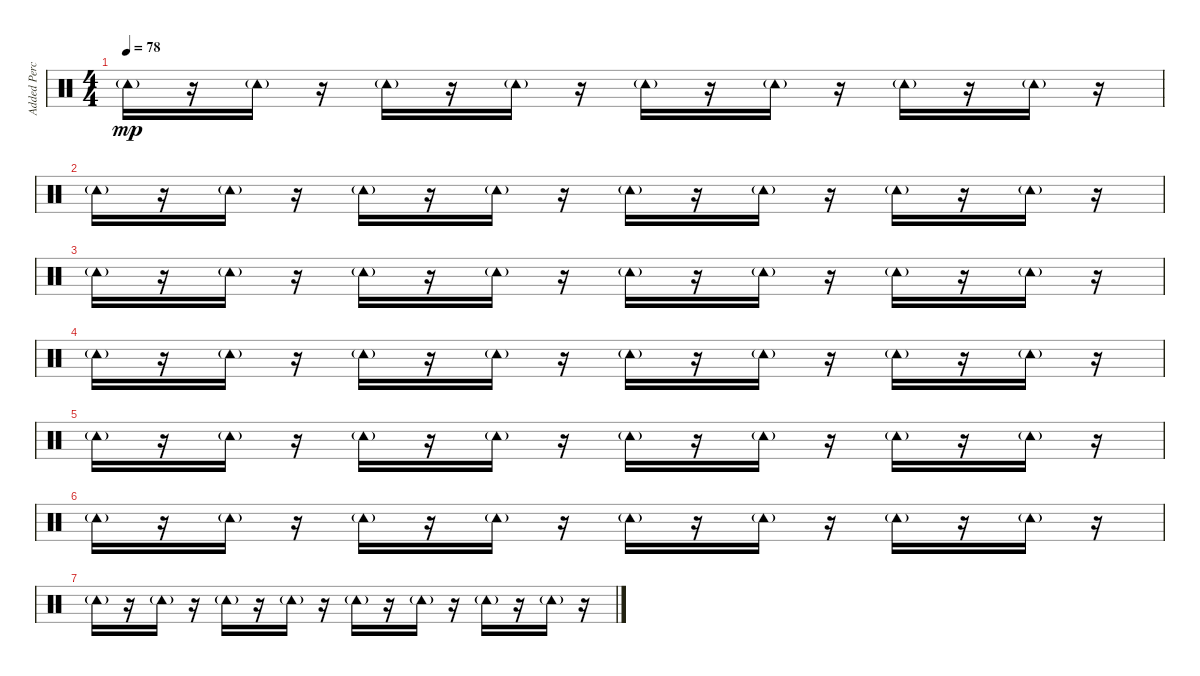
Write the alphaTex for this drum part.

\track ("Added Percussion" "Added Perc") {instrument percussion}
\staff {score}
\articulation defaults
\ts (4 4)
\tempo 78
\clef neutral
\ks c "Tambourine (hit)"{g}.16{dy mp}
r.16 "Tambourine (hit)"{g}.16 r.16 "Tambourine (hit)"{g}.16 r.16 "Tambourine (hit)"{g}.16 r.16 "Tambourine (hit)"{g}.16 r.16 "Tambourine (hit)"{g}.16 r.16 "Tambourine (hit)"{g}.16 r.16 "Tambourine (hit)"{g}.16 r.16 |
"Tambourine (hit)"{g}.16 r.16 "Tambourine (hit)"{g}.16 r.16 "Tambourine (hit)"{g}.16 r.16 "Tambourine (hit)"{g}.16 r.16 "Tambourine (hit)"{g}.16 r.16 "Tambourine (hit)"{g}.16 r.16 "Tambourine (hit)"{g}.16 r.16 "Tambourine (hit)"{g}.16 r.16 |
"Tambourine (hit)"{g}.16 r.16 "Tambourine (hit)"{g}.16 r.16 "Tambourine (hit)"{g}.16 r.16 "Tambourine (hit)"{g}.16 r.16 "Tambourine (hit)"{g}.16 r.16 "Tambourine (hit)"{g}.16 r.16 "Tambourine (hit)"{g}.16 r.16 "Tambourine (hit)"{g}.16 r.16 |
"Tambourine (hit)"{g}.16 r.16 "Tambourine (hit)"{g}.16 r.16 "Tambourine (hit)"{g}.16 r.16 "Tambourine (hit)"{g}.16 r.16 "Tambourine (hit)"{g}.16 r.16 "Tambourine (hit)"{g}.16 r.16 "Tambourine (hit)"{g}.16 r.16 "Tambourine (hit)"{g}.16 r.16 |
"Tambourine (hit)"{g}.16 r.16 "Tambourine (hit)"{g}.16 r.16 "Tambourine (hit)"{g}.16 r.16 "Tambourine (hit)"{g}.16 r.16 "Tambourine (hit)"{g}.16 r.16 "Tambourine (hit)"{g}.16 r.16 "Tambourine (hit)"{g}.16 r.16 "Tambourine (hit)"{g}.16 r.16 |
"Tambourine (hit)"{g}.16 r.16 "Tambourine (hit)"{g}.16 r.16 "Tambourine (hit)"{g}.16 r.16 "Tambourine (hit)"{g}.16 r.16 "Tambourine (hit)"{g}.16 r.16 "Tambourine (hit)"{g}.16 r.16 "Tambourine (hit)"{g}.16 r.16 "Tambourine (hit)"{g}.16 r.16 |
"Tambourine (hit)"{g}.16 r.16 "Tambourine (hit)"{g}.16 r.16 "Tambourine (hit)"{g}.16 r.16 "Tambourine (hit)"{g}.16 r.16 "Tambourine (hit)"{g}.16 r.16 "Tambourine (hit)"{g}.16 r.16 "Tambourine (hit)"{g}.16 r.16 "Tambourine (hit)"{g}.16 r.16
